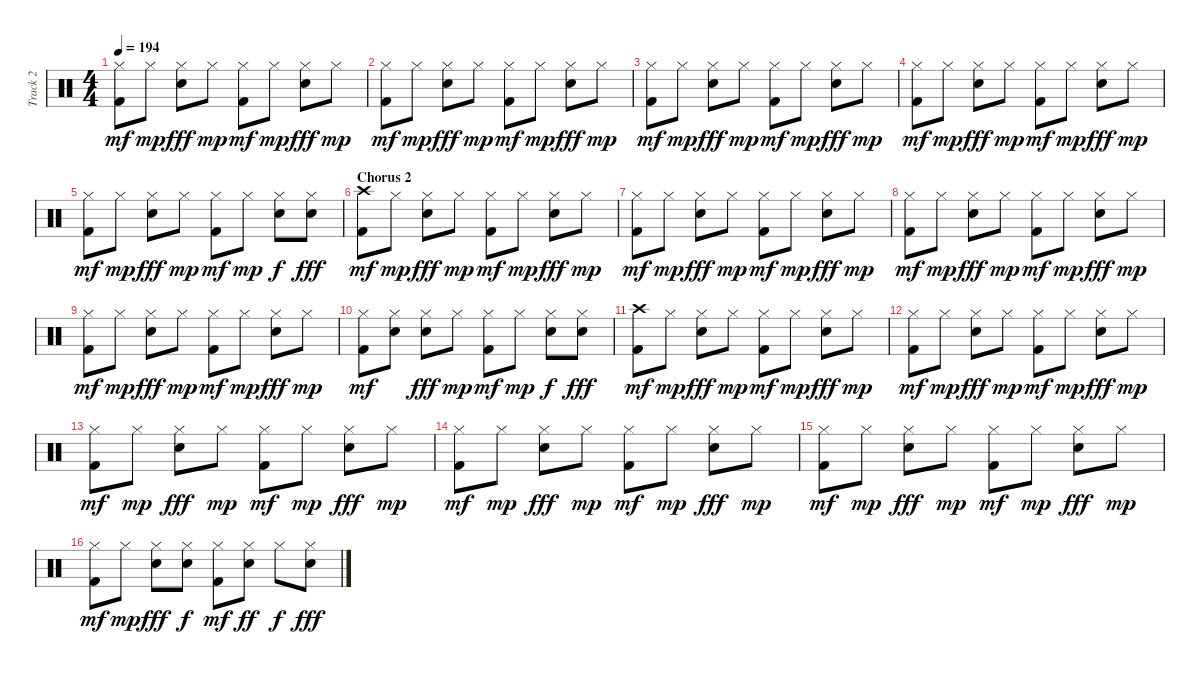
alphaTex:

\track ("Track 2" "Track 2") {instrument percussion}
\staff {score}
\articulation defaults
\ts (4 4)
\tempo 194
\clef neutral
\ks c
("Hi-Hat (closed)" "Kick (hit) 2").8{dy mf} "Hi-Hat (closed)".8{dy mp} ("Hi-Hat (closed)" "Snare (hit)").8{dy fff} "Hi-Hat (closed)".8{dy mp} ("Hi-Hat (closed)" "Kick (hit) 2").8{dy mf} "Hi-Hat (closed)".8{dy mp} ("Hi-Hat (closed)" "Snare (hit)").8{dy fff} "Hi-Hat (closed)".8{dy mp} |
("Hi-Hat (closed)" "Kick (hit) 2").8{dy mf} "Hi-Hat (closed)".8{dy mp} ("Hi-Hat (closed)" "Snare (hit)").8{dy fff} "Hi-Hat (closed)".8{dy mp} ("Hi-Hat (closed)" "Kick (hit) 2").8{dy mf} "Hi-Hat (closed)".8{dy mp} ("Hi-Hat (closed)" "Snare (hit)").8{dy fff} "Hi-Hat (closed)".8{dy mp} |
("Hi-Hat (closed)" "Kick (hit) 2").8{dy mf} "Hi-Hat (closed)".8{dy mp} ("Hi-Hat (closed)" "Snare (hit)").8{dy fff} "Hi-Hat (closed)".8{dy mp} ("Hi-Hat (closed)" "Kick (hit) 2").8{dy mf} "Hi-Hat (closed)".8{dy mp} ("Hi-Hat (closed)" "Snare (hit)").8{dy fff} "Hi-Hat (closed)".8{dy mp} |
("Hi-Hat (closed)" "Kick (hit) 2").8{dy mf} "Hi-Hat (closed)".8{dy mp} ("Hi-Hat (closed)" "Snare (hit)").8{dy fff} "Hi-Hat (closed)".8{dy mp} ("Hi-Hat (closed)" "Kick (hit) 2").8{dy mf} "Hi-Hat (closed)".8{dy mp} ("Hi-Hat (closed)" "Snare (hit)").8{dy fff} "Hi-Hat (closed)".8{dy mp} |
("Hi-Hat (closed)" "Kick (hit) 2").8{dy mf} "Hi-Hat (closed)".8{dy mp} ("Hi-Hat (closed)" "Snare (hit)").8{dy fff} "Hi-Hat (closed)".8{dy mp} ("Hi-Hat (closed)" "Kick (hit) 2").8{dy mf} "Hi-Hat (closed)".8{dy mp} ("Hi-Hat (closed)" "Snare (hit)").8{dy f} ("Hi-Hat (closed)" "Snare (hit)").8{dy fff} |
\section ("" "Chorus 2")
("Crash high (hit)" "Kick (hit) 2").8{dy mf} "Hi-Hat (closed)".8{dy mp} ("Hi-Hat (closed)" "Snare (hit)").8{dy fff} "Hi-Hat (closed)".8{dy mp} ("Hi-Hat (closed)" "Kick (hit) 2").8{dy mf} "Hi-Hat (closed)".8{dy mp} ("Hi-Hat (closed)" "Snare (hit)").8{dy fff} "Hi-Hat (closed)".8{dy mp} |
("Hi-Hat (closed)" "Kick (hit) 2").8{dy mf} "Hi-Hat (closed)".8{dy mp} ("Hi-Hat (closed)" "Snare (hit)").8{dy fff} "Hi-Hat (closed)".8{dy mp} ("Hi-Hat (closed)" "Kick (hit) 2").8{dy mf} "Hi-Hat (closed)".8{dy mp} ("Hi-Hat (closed)" "Snare (hit)").8{dy fff} "Hi-Hat (closed)".8{dy mp} |
("Hi-Hat (closed)" "Kick (hit) 2").8{dy mf} "Hi-Hat (closed)".8{dy mp} ("Hi-Hat (closed)" "Snare (hit)").8{dy fff} "Hi-Hat (closed)".8{dy mp} ("Hi-Hat (closed)" "Kick (hit) 2").8{dy mf} "Hi-Hat (closed)".8{dy mp} ("Hi-Hat (closed)" "Snare (hit)").8{dy fff} "Hi-Hat (closed)".8{dy mp} |
("Hi-Hat (closed)" "Kick (hit) 2").8{dy mf} "Hi-Hat (closed)".8{dy mp} ("Hi-Hat (closed)" "Snare (hit)").8{dy fff} "Hi-Hat (closed)".8{dy mp} ("Hi-Hat (closed)" "Kick (hit) 2").8{dy mf} "Hi-Hat (closed)".8{dy mp} ("Hi-Hat (closed)" "Snare (hit)").8{dy fff} "Hi-Hat (closed)".8{dy mp} |
("Hi-Hat (closed)" "Kick (hit) 2").8{dy mf} ("Hi-Hat (closed)" "Snare (hit)").8 ("Hi-Hat (closed)" "Snare (hit)").8{dy fff} "Hi-Hat (closed)".8{dy mp} ("Hi-Hat (closed)" "Kick (hit) 2").8{dy mf} "Hi-Hat (closed)".8{dy mp} ("Hi-Hat (closed)" "Snare (hit)").8{dy f} ("Hi-Hat (closed)" "Snare (hit)").8{dy fff} |
("Crash high (hit)" "Kick (hit) 2").8{dy mf} "Hi-Hat (closed)".8{dy mp} ("Hi-Hat (closed)" "Snare (hit)").8{dy fff} "Hi-Hat (closed)".8{dy mp} ("Hi-Hat (closed)" "Kick (hit) 2").8{dy mf} "Hi-Hat (closed)".8{dy mp} ("Hi-Hat (closed)" "Snare (hit)").8{dy fff} "Hi-Hat (closed)".8{dy mp} |
("Hi-Hat (closed)" "Kick (hit) 2").8{dy mf} "Hi-Hat (closed)".8{dy mp} ("Hi-Hat (closed)" "Snare (hit)").8{dy fff} "Hi-Hat (closed)".8{dy mp} ("Hi-Hat (closed)" "Kick (hit) 2").8{dy mf} "Hi-Hat (closed)".8{dy mp} ("Hi-Hat (closed)" "Snare (hit)").8{dy fff} "Hi-Hat (closed)".8{dy mp} |
("Hi-Hat (closed)" "Kick (hit) 2").8{dy mf} "Hi-Hat (closed)".8{dy mp} ("Hi-Hat (closed)" "Snare (hit)").8{dy fff} "Hi-Hat (closed)".8{dy mp} ("Hi-Hat (closed)" "Kick (hit) 2").8{dy mf} "Hi-Hat (closed)".8{dy mp} ("Hi-Hat (closed)" "Snare (hit)").8{dy fff} "Hi-Hat (closed)".8{dy mp} |
("Hi-Hat (closed)" "Kick (hit) 2").8{dy mf} "Hi-Hat (closed)".8{dy mp} ("Hi-Hat (closed)" "Snare (hit)").8{dy fff} "Hi-Hat (closed)".8{dy mp} ("Hi-Hat (closed)" "Kick (hit) 2").8{dy mf} "Hi-Hat (closed)".8{dy mp} ("Hi-Hat (closed)" "Snare (hit)").8{dy fff} "Hi-Hat (closed)".8{dy mp} |
("Hi-Hat (closed)" "Kick (hit) 2").8{dy mf} "Hi-Hat (closed)".8{dy mp} ("Hi-Hat (closed)" "Snare (hit)").8{dy fff} "Hi-Hat (closed)".8{dy mp} ("Hi-Hat (closed)" "Kick (hit) 2").8{dy mf} "Hi-Hat (closed)".8{dy mp} ("Hi-Hat (closed)" "Snare (hit)").8{dy fff} "Hi-Hat (closed)".8{dy mp} |
("Hi-Hat (closed)" "Kick (hit) 2").8{dy mf} "Hi-Hat (closed)".8{dy mp} ("Hi-Hat (closed)" "Snare (hit)").8{dy fff} ("Hi-Hat (closed)" "Snare (hit)").8{dy f} ("Hi-Hat (closed)" "Kick (hit) 2").8{dy mf} ("Hi-Hat (closed)" "Snare (hit)").8{dy ff} "Hi-Hat (closed)".8{dy f} ("Hi-Hat (closed)" "Snare (hit)").8{dy fff}
